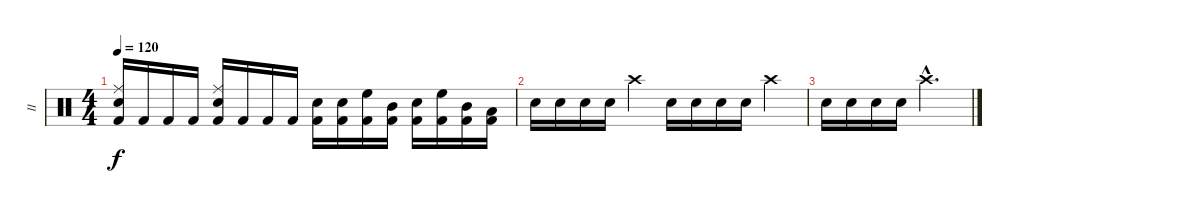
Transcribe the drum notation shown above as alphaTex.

\track ("II" "II") {instrument percussion}
\staff {score}
\articulation defaults
\ts (4 4)
\tempo 120
\clef neutral
\ks c
("Kick (hit) 2" "Ride (middle)" "Snare (hit) 2").16{dy f} "Kick (hit) 2".16 "Kick (hit) 2".16 "Kick (hit) 2".16 ("Kick (hit) 2" "Ride (middle)" "Snare (hit) 2").16 "Kick (hit) 2".16 "Kick (hit) 2".16 "Kick (hit) 2".16 ("Kick (hit) 2" "Snare (hit) 2").16 ("Kick (hit) 2" "Snare (hit) 2").16 ("Kick (hit) 2" "High Floor Tom (hit)").16 ("Kick (hit) 2" "Mid Tom (hit)").16 ("Kick (hit) 2" "Snare (hit) 2").16 ("Kick (hit) 2" "High Floor Tom (hit)").16 ("Kick (hit) 2" "Mid Tom (hit)").16 ("Kick (hit) 2" "Low Tom (hit)").16 |
"Snare (hit) 2".16 "Snare (hit) 2".16 "Snare (hit) 2".16 "Snare (hit) 2".16 "Crash high (hit)".4 "Snare (hit) 2".16 "Snare (hit) 2".16 "Snare (hit) 2".16 "Snare (hit) 2".16 "Crash high (hit)".4 |
"Snare (hit) 2".16 "Snare (hit) 2".16 "Snare (hit) 2".16 "Snare (hit) 2".16 "Crash high (hit)"{hac}.2{d}
